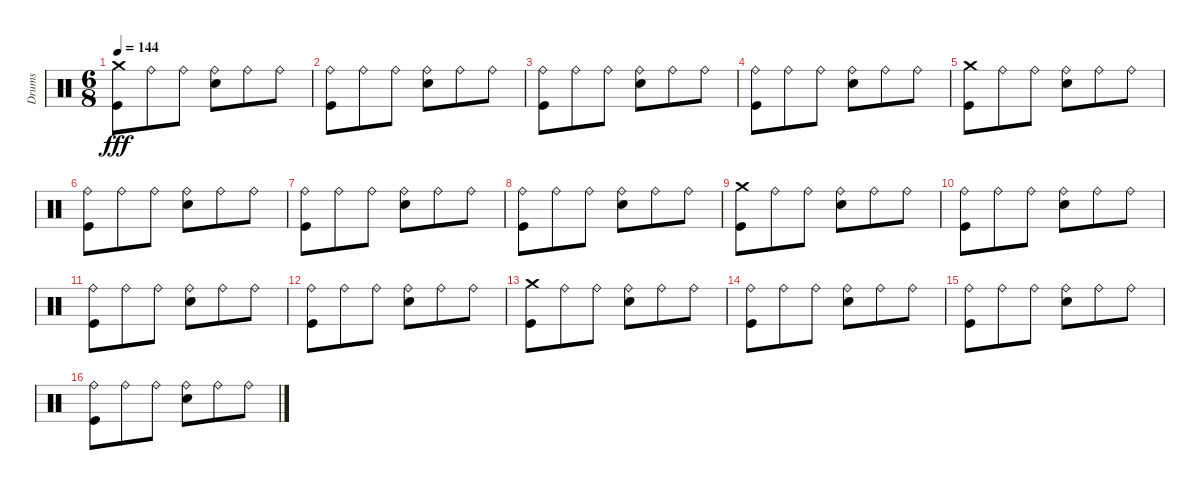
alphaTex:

\track ("Drums" "Drums") {instrument percussion}
\staff {score}
\articulation defaults
\ts (6 8)
\tempo 144
\clef neutral
\ks c
("Crash medium (hit)" "Kick (hit)").8{dy fff} "Ride (bell)".8 "Ride (bell)".8 ("Ride (bell)" "Snare (hit) 2").8 "Ride (bell)".8 "Ride (bell)".8 |
("Ride (bell)" "Kick (hit)").8 "Ride (bell)".8 "Ride (bell)".8 ("Ride (bell)" "Snare (hit) 2").8 "Ride (bell)".8 "Ride (bell)".8 |
("Ride (bell)" "Kick (hit)").8 "Ride (bell)".8 "Ride (bell)".8 ("Ride (bell)" "Snare (hit) 2").8 "Ride (bell)".8 "Ride (bell)".8 |
("Ride (bell)" "Kick (hit)").8 "Ride (bell)".8 "Ride (bell)".8 ("Ride (bell)" "Snare (hit) 2").8 "Ride (bell)".8 "Ride (bell)".8 |
("Crash medium (hit)" "Kick (hit)").8 "Ride (bell)".8 "Ride (bell)".8 ("Ride (bell)" "Snare (hit) 2").8 "Ride (bell)".8 "Ride (bell)".8 |
("Ride (bell)" "Kick (hit)").8 "Ride (bell)".8 "Ride (bell)".8 ("Ride (bell)" "Snare (hit) 2").8 "Ride (bell)".8 "Ride (bell)".8 |
("Ride (bell)" "Kick (hit)").8 "Ride (bell)".8 "Ride (bell)".8 ("Ride (bell)" "Snare (hit) 2").8 "Ride (bell)".8 "Ride (bell)".8 |
("Ride (bell)" "Kick (hit)").8 "Ride (bell)".8 "Ride (bell)".8 ("Ride (bell)" "Snare (hit) 2").8 "Ride (bell)".8 "Ride (bell)".8 |
("Crash medium (hit)" "Kick (hit)").8 "Ride (bell)".8 "Ride (bell)".8 ("Ride (bell)" "Snare (hit) 2").8 "Ride (bell)".8 "Ride (bell)".8 |
("Ride (bell)" "Kick (hit)").8 "Ride (bell)".8 "Ride (bell)".8 ("Ride (bell)" "Snare (hit) 2").8 "Ride (bell)".8 "Ride (bell)".8 |
("Ride (bell)" "Kick (hit)").8 "Ride (bell)".8 "Ride (bell)".8 ("Ride (bell)" "Snare (hit) 2").8 "Ride (bell)".8 "Ride (bell)".8 |
("Ride (bell)" "Kick (hit)").8 "Ride (bell)".8 "Ride (bell)".8 ("Ride (bell)" "Snare (hit) 2").8 "Ride (bell)".8 "Ride (bell)".8 |
("Crash medium (hit)" "Kick (hit)").8 "Ride (bell)".8 "Ride (bell)".8 ("Ride (bell)" "Snare (hit) 2").8 "Ride (bell)".8 "Ride (bell)".8 |
("Ride (bell)" "Kick (hit)").8 "Ride (bell)".8 "Ride (bell)".8 ("Ride (bell)" "Snare (hit) 2").8 "Ride (bell)".8 "Ride (bell)".8 |
("Ride (bell)" "Kick (hit)").8 "Ride (bell)".8 "Ride (bell)".8 ("Ride (bell)" "Snare (hit) 2").8 "Ride (bell)".8 "Ride (bell)".8 |
("Ride (bell)" "Kick (hit)").8 "Ride (bell)".8 "Ride (bell)".8 ("Ride (bell)" "Snare (hit) 2").8 "Ride (bell)".8 "Ride (bell)".8
